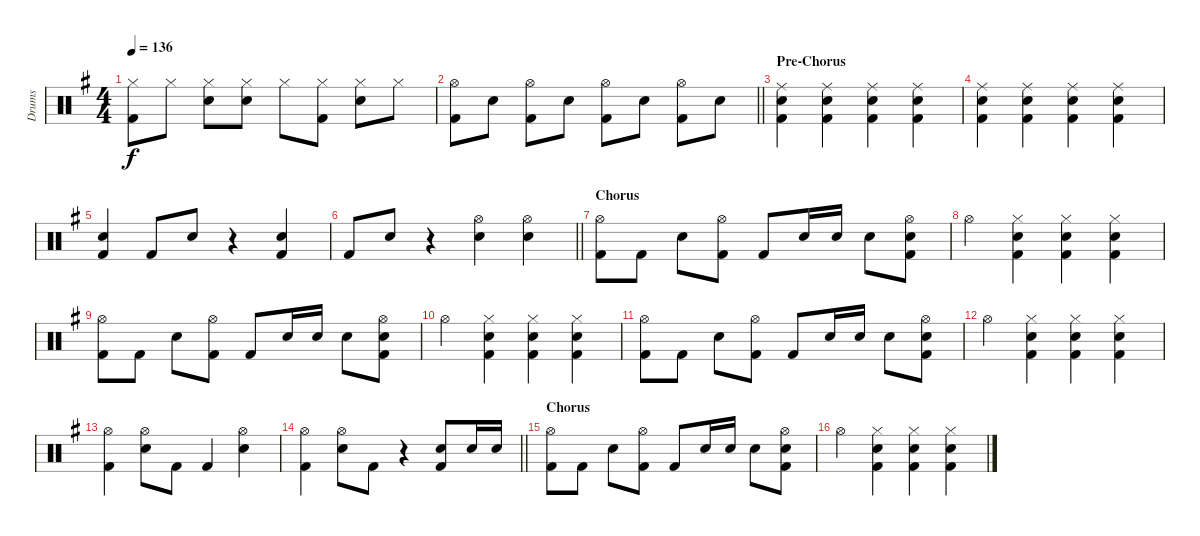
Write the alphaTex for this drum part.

\track ("Drums" "Drums") {instrument percussion}
\staff {score}
\articulation defaults
\ts (4 4)
\tempo 136
\clef neutral
\ks g
("Hi-Hat (closed)" "Kick (hit) 2").8{dy f} "Hi-Hat (closed)".8 ("Hi-Hat (closed)" "Snare (hit) 2").8 ("Hi-Hat (closed)" "Snare (hit) 2").8 "Hi-Hat (closed)".8 ("Hi-Hat (closed)" "Kick (hit) 2").8 ("Hi-Hat (closed)" "Snare (hit) 2").8 "Hi-Hat (closed)".8 |
\barLineRight lightlight
("Hi-Hat (open)" "Kick (hit) 2").8 "Snare (hit) 2".8 ("Hi-Hat (open)" "Kick (hit) 2").8 "Snare (hit) 2".8 ("Hi-Hat (open)" "Kick (hit) 2").8 "Snare (hit) 2".8 ("Hi-Hat (open)" "Kick (hit) 2").8 "Snare (hit) 2".8 |
\section ("" "Pre-Chorus")
("Ride (middle)" "Kick (hit) 2" "Snare (hit) 2").4 ("Ride (middle)" "Kick (hit) 2" "Snare (hit) 2").4 ("Ride (middle)" "Kick (hit) 2" "Snare (hit) 2").4 ("Ride (middle)" "Kick (hit) 2" "Snare (hit) 2").4 |
("Ride (middle)" "Kick (hit) 2" "Snare (hit) 2").4 ("Ride (middle)" "Kick (hit) 2" "Snare (hit) 2").4 ("Ride (middle)" "Kick (hit) 2" "Snare (hit) 2").4 ("Ride (middle)" "Kick (hit) 2" "Snare (hit) 2").4 |
("Kick (hit) 2" "Snare (hit) 2").4 "Kick (hit) 2".8 "Snare (hit) 2".8 r.4 ("Kick (hit) 2" "Snare (hit) 2").4 |
\barLineRight lightlight "Kick (hit) 2".8 "Snare (hit) 2".8
r.4 ("Hi-Hat (open)" "Snare (hit) 2").4 ("Hi-Hat (open)" "Snare (hit) 2").4 |
\section ("" "Chorus")
("Kick (hit) 2" "Hi-Hat (open)").8 "Kick (hit) 2".8 "Snare (hit) 2".8 ("Kick (hit) 2" "Hi-Hat (open)").8 "Kick (hit) 2".8 "Snare (hit) 2".16 "Snare (hit) 2".16 "Snare (hit) 2".8 ("Snare (hit) 2" "Kick (hit) 2" "Hi-Hat (open)").8 |
"Hi-Hat (open)".4 ("Hi-Hat (closed)" "Snare (hit) 2" "Kick (hit) 2").4 ("Hi-Hat (closed)" "Kick (hit) 2" "Snare (hit) 2").4 ("Hi-Hat (closed)" "Kick (hit) 2" "Snare (hit) 2").4 |
("Kick (hit) 2" "Hi-Hat (open)").8 "Kick (hit) 2".8 "Snare (hit) 2".8 ("Kick (hit) 2" "Hi-Hat (open)").8 "Kick (hit) 2".8 "Snare (hit) 2".16 "Snare (hit) 2".16 "Snare (hit) 2".8 ("Snare (hit) 2" "Kick (hit) 2" "Hi-Hat (open)").8 |
"Hi-Hat (open)".4 ("Hi-Hat (closed)" "Snare (hit) 2" "Kick (hit) 2").4 ("Hi-Hat (closed)" "Kick (hit) 2" "Snare (hit) 2").4 ("Hi-Hat (closed)" "Kick (hit) 2" "Snare (hit) 2").4 |
("Kick (hit) 2" "Hi-Hat (open)").8 "Kick (hit) 2".8 "Snare (hit) 2".8 ("Kick (hit) 2" "Hi-Hat (open)").8 "Kick (hit) 2".8 "Snare (hit) 2".16 "Snare (hit) 2".16 "Snare (hit) 2".8 ("Snare (hit) 2" "Kick (hit) 2" "Hi-Hat (open)").8 |
"Hi-Hat (open)".4 ("Hi-Hat (closed)" "Snare (hit) 2" "Kick (hit) 2").4 ("Hi-Hat (closed)" "Kick (hit) 2" "Snare (hit) 2").4 ("Hi-Hat (closed)" "Kick (hit) 2" "Snare (hit) 2").4 |
("Hi-Hat (open)" "Kick (hit) 2").4 ("Snare (hit) 2" "Hi-Hat (open)").8 "Kick (hit) 2".8 "Kick (hit) 2".4 ("Snare (hit) 2" "Hi-Hat (open)").4 |
\barLineRight lightlight
("Kick (hit) 2" "Hi-Hat (open)").4 ("Snare (hit) 2" "Hi-Hat (open)").8 "Kick (hit) 2".8 r.4 ("Kick (hit) 2" "Snare (hit) 2").8 "Snare (hit) 2".16 "Snare (hit) 2".16 |
\section ("" "Chorus")
("Kick (hit) 2" "Hi-Hat (open)").8 "Kick (hit) 2".8 "Snare (hit) 2".8 ("Kick (hit) 2" "Hi-Hat (open)").8 "Kick (hit) 2".8 "Snare (hit) 2".16 "Snare (hit) 2".16 "Snare (hit) 2".8 ("Snare (hit) 2" "Kick (hit) 2" "Hi-Hat (open)").8 |
"Hi-Hat (open)".4 ("Hi-Hat (closed)" "Snare (hit) 2" "Kick (hit) 2").4 ("Hi-Hat (closed)" "Kick (hit) 2" "Snare (hit) 2").4 ("Hi-Hat (closed)" "Kick (hit) 2" "Snare (hit) 2").4
